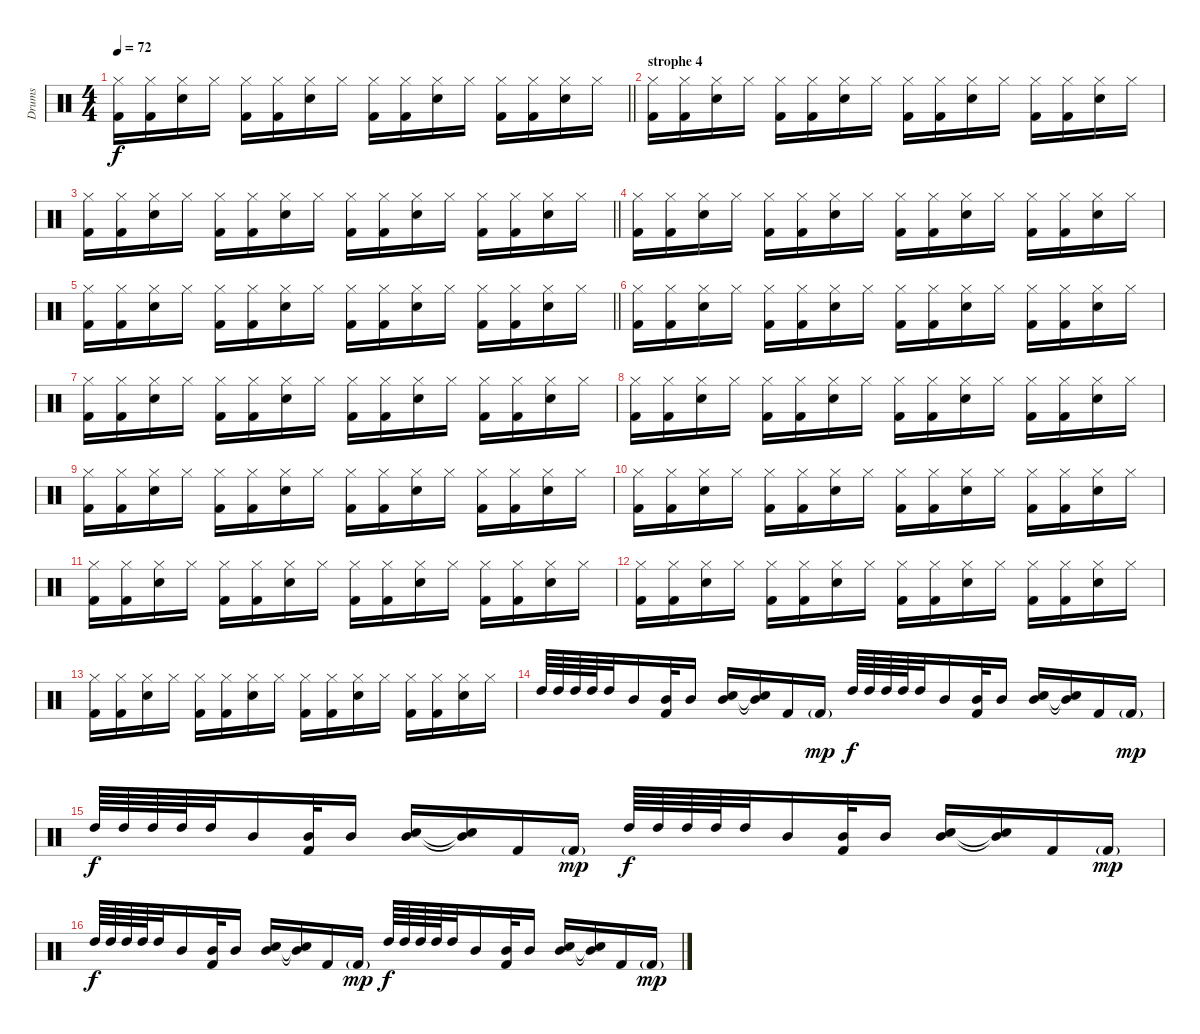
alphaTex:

\track ("Drums" "Drums") {instrument percussion}
\staff {score}
\articulation defaults
\ts (4 4)
\tempo 72
\clef neutral
\barLineRight lightlight
\ks c
("Hi-Hat (closed)" "Kick (hit) 2").16{dy f} ("Hi-Hat (closed)" "Kick (hit) 2").16 ("Hi-Hat (closed)" "Snare (hit) 2").16 "Hi-Hat (closed)".16 ("Hi-Hat (closed)" "Kick (hit) 2").16 ("Hi-Hat (closed)" "Kick (hit) 2").16 ("Hi-Hat (closed)" "Snare (hit) 2").16 "Hi-Hat (closed)".16 ("Hi-Hat (closed)" "Kick (hit) 2").16 ("Hi-Hat (closed)" "Kick (hit) 2").16 ("Hi-Hat (closed)" "Snare (hit) 2").16 "Hi-Hat (closed)".16 ("Hi-Hat (closed)" "Kick (hit) 2").16 ("Hi-Hat (closed)" "Kick (hit) 2").16 ("Hi-Hat (closed)" "Snare (hit) 2").16 "Hi-Hat (closed)".16 |
\section ("" "strophe 4")
("Hi-Hat (closed)" "Kick (hit) 2").16 ("Hi-Hat (closed)" "Kick (hit) 2").16 ("Hi-Hat (closed)" "Snare (hit) 2").16 "Hi-Hat (closed)".16 ("Hi-Hat (closed)" "Kick (hit) 2").16 ("Hi-Hat (closed)" "Kick (hit) 2").16 ("Hi-Hat (closed)" "Snare (hit) 2").16 "Hi-Hat (closed)".16 ("Hi-Hat (closed)" "Kick (hit) 2").16 ("Hi-Hat (closed)" "Kick (hit) 2").16 ("Hi-Hat (closed)" "Snare (hit) 2").16 "Hi-Hat (closed)".16 ("Hi-Hat (closed)" "Kick (hit) 2").16 ("Hi-Hat (closed)" "Kick (hit) 2").16 ("Hi-Hat (closed)" "Snare (hit) 2").16 "Hi-Hat (closed)".16 |
\barLineRight lightlight
("Hi-Hat (closed)" "Kick (hit) 2").16 ("Hi-Hat (closed)" "Kick (hit) 2").16 ("Hi-Hat (closed)" "Snare (hit) 2").16 "Hi-Hat (closed)".16 ("Hi-Hat (closed)" "Kick (hit) 2").16 ("Hi-Hat (closed)" "Kick (hit) 2").16 ("Hi-Hat (closed)" "Snare (hit) 2").16 "Hi-Hat (closed)".16 ("Hi-Hat (closed)" "Kick (hit) 2").16 ("Hi-Hat (closed)" "Kick (hit) 2").16 ("Hi-Hat (closed)" "Snare (hit) 2").16 "Hi-Hat (closed)".16 ("Hi-Hat (closed)" "Kick (hit) 2").16 ("Hi-Hat (closed)" "Kick (hit) 2").16 ("Hi-Hat (closed)" "Snare (hit) 2").16 "Hi-Hat (closed)".16 |
("Hi-Hat (closed)" "Kick (hit) 2").16 ("Hi-Hat (closed)" "Kick (hit) 2").16 ("Hi-Hat (closed)" "Snare (hit) 2").16 "Hi-Hat (closed)".16 ("Hi-Hat (closed)" "Kick (hit) 2").16 ("Hi-Hat (closed)" "Kick (hit) 2").16 ("Hi-Hat (closed)" "Snare (hit) 2").16 "Hi-Hat (closed)".16 ("Hi-Hat (closed)" "Kick (hit) 2").16 ("Hi-Hat (closed)" "Kick (hit) 2").16 ("Hi-Hat (closed)" "Snare (hit) 2").16 "Hi-Hat (closed)".16 ("Hi-Hat (closed)" "Kick (hit) 2").16 ("Hi-Hat (closed)" "Kick (hit) 2").16 ("Hi-Hat (closed)" "Snare (hit) 2").16 "Hi-Hat (closed)".16 |
\barLineRight lightlight
("Hi-Hat (closed)" "Kick (hit) 2").16 ("Hi-Hat (closed)" "Kick (hit) 2").16 ("Hi-Hat (closed)" "Snare (hit) 2").16 "Hi-Hat (closed)".16 ("Hi-Hat (closed)" "Kick (hit) 2").16 ("Hi-Hat (closed)" "Kick (hit) 2").16 ("Hi-Hat (closed)" "Snare (hit) 2").16 "Hi-Hat (closed)".16 ("Hi-Hat (closed)" "Kick (hit) 2").16 ("Hi-Hat (closed)" "Kick (hit) 2").16 ("Hi-Hat (closed)" "Snare (hit) 2").16 "Hi-Hat (closed)".16 ("Hi-Hat (closed)" "Kick (hit) 2").16 ("Hi-Hat (closed)" "Kick (hit) 2").16 ("Hi-Hat (closed)" "Snare (hit) 2").16 "Hi-Hat (closed)".16 |
("Hi-Hat (closed)" "Kick (hit) 2").16 ("Hi-Hat (closed)" "Kick (hit) 2").16 ("Hi-Hat (closed)" "Snare (hit) 2").16 "Hi-Hat (closed)".16 ("Hi-Hat (closed)" "Kick (hit) 2").16 ("Hi-Hat (closed)" "Kick (hit) 2").16 ("Hi-Hat (closed)" "Snare (hit) 2").16 "Hi-Hat (closed)".16 ("Hi-Hat (closed)" "Kick (hit) 2").16 ("Hi-Hat (closed)" "Kick (hit) 2").16 ("Hi-Hat (closed)" "Snare (hit) 2").16 "Hi-Hat (closed)".16 ("Hi-Hat (closed)" "Kick (hit) 2").16 ("Hi-Hat (closed)" "Kick (hit) 2").16 ("Hi-Hat (closed)" "Snare (hit) 2").16 "Hi-Hat (closed)".16 |
("Hi-Hat (closed)" "Kick (hit) 2").16 ("Hi-Hat (closed)" "Kick (hit) 2").16 ("Hi-Hat (closed)" "Snare (hit) 2").16 "Hi-Hat (closed)".16 ("Hi-Hat (closed)" "Kick (hit) 2").16 ("Hi-Hat (closed)" "Kick (hit) 2").16 ("Hi-Hat (closed)" "Snare (hit) 2").16 "Hi-Hat (closed)".16 ("Hi-Hat (closed)" "Kick (hit) 2").16 ("Hi-Hat (closed)" "Kick (hit) 2").16 ("Hi-Hat (closed)" "Snare (hit) 2").16 "Hi-Hat (closed)".16 ("Hi-Hat (closed)" "Kick (hit) 2").16 ("Hi-Hat (closed)" "Kick (hit) 2").16 ("Hi-Hat (closed)" "Snare (hit) 2").16 "Hi-Hat (closed)".16 |
("Hi-Hat (closed)" "Kick (hit) 2").16 ("Hi-Hat (closed)" "Kick (hit) 2").16 ("Hi-Hat (closed)" "Snare (hit) 2").16 "Hi-Hat (closed)".16 ("Hi-Hat (closed)" "Kick (hit) 2").16 ("Hi-Hat (closed)" "Kick (hit) 2").16 ("Hi-Hat (closed)" "Snare (hit) 2").16 "Hi-Hat (closed)".16 ("Hi-Hat (closed)" "Kick (hit) 2").16 ("Hi-Hat (closed)" "Kick (hit) 2").16 ("Hi-Hat (closed)" "Snare (hit) 2").16 "Hi-Hat (closed)".16 ("Hi-Hat (closed)" "Kick (hit) 2").16 ("Hi-Hat (closed)" "Kick (hit) 2").16 ("Hi-Hat (closed)" "Snare (hit) 2").16 "Hi-Hat (closed)".16 |
("Hi-Hat (closed)" "Kick (hit) 2").16 ("Hi-Hat (closed)" "Kick (hit) 2").16 ("Hi-Hat (closed)" "Snare (hit) 2").16 "Hi-Hat (closed)".16 ("Hi-Hat (closed)" "Kick (hit) 2").16 ("Hi-Hat (closed)" "Kick (hit) 2").16 ("Hi-Hat (closed)" "Snare (hit) 2").16 "Hi-Hat (closed)".16 ("Hi-Hat (closed)" "Kick (hit) 2").16 ("Hi-Hat (closed)" "Kick (hit) 2").16 ("Hi-Hat (closed)" "Snare (hit) 2").16 "Hi-Hat (closed)".16 ("Hi-Hat (closed)" "Kick (hit) 2").16 ("Hi-Hat (closed)" "Kick (hit) 2").16 ("Hi-Hat (closed)" "Snare (hit) 2").16 "Hi-Hat (closed)".16 |
("Hi-Hat (closed)" "Kick (hit) 2").16 ("Hi-Hat (closed)" "Kick (hit) 2").16 ("Hi-Hat (closed)" "Snare (hit) 2").16 "Hi-Hat (closed)".16 ("Hi-Hat (closed)" "Kick (hit) 2").16 ("Hi-Hat (closed)" "Kick (hit) 2").16 ("Hi-Hat (closed)" "Snare (hit) 2").16 "Hi-Hat (closed)".16 ("Hi-Hat (closed)" "Kick (hit) 2").16 ("Hi-Hat (closed)" "Kick (hit) 2").16 ("Hi-Hat (closed)" "Snare (hit) 2").16 "Hi-Hat (closed)".16 ("Hi-Hat (closed)" "Kick (hit) 2").16 ("Hi-Hat (closed)" "Kick (hit) 2").16 ("Hi-Hat (closed)" "Snare (hit) 2").16 "Hi-Hat (closed)".16 |
("Hi-Hat (closed)" "Kick (hit) 2").16 ("Hi-Hat (closed)" "Kick (hit) 2").16 ("Hi-Hat (closed)" "Snare (hit) 2").16 "Hi-Hat (closed)".16 ("Hi-Hat (closed)" "Kick (hit) 2").16 ("Hi-Hat (closed)" "Kick (hit) 2").16 ("Hi-Hat (closed)" "Snare (hit) 2").16 "Hi-Hat (closed)".16 ("Hi-Hat (closed)" "Kick (hit) 2").16 ("Hi-Hat (closed)" "Kick (hit) 2").16 ("Hi-Hat (closed)" "Snare (hit) 2").16 "Hi-Hat (closed)".16 ("Hi-Hat (closed)" "Kick (hit) 2").16 ("Hi-Hat (closed)" "Kick (hit) 2").16 ("Hi-Hat (closed)" "Snare (hit) 2").16 "Hi-Hat (closed)".16 |
("Hi-Hat (closed)" "Kick (hit) 2").16 ("Hi-Hat (closed)" "Kick (hit) 2").16 ("Hi-Hat (closed)" "Snare (hit) 2").16 "Hi-Hat (closed)".16 ("Hi-Hat (closed)" "Kick (hit) 2").16 ("Hi-Hat (closed)" "Kick (hit) 2").16 ("Hi-Hat (closed)" "Snare (hit) 2").16 "Hi-Hat (closed)".16 ("Hi-Hat (closed)" "Kick (hit) 2").16 ("Hi-Hat (closed)" "Kick (hit) 2").16 ("Hi-Hat (closed)" "Snare (hit) 2").16 "Hi-Hat (closed)".16 ("Hi-Hat (closed)" "Kick (hit) 2").16 ("Hi-Hat (closed)" "Kick (hit) 2").16 ("Hi-Hat (closed)" "Snare (hit) 2").16 "Hi-Hat (closed)".16 |
("Hi-Hat (closed)" "Kick (hit) 2").16 ("Hi-Hat (closed)" "Kick (hit) 2").16 ("Hi-Hat (closed)" "Snare (hit) 2").16 "Hi-Hat (closed)".16 ("Hi-Hat (closed)" "Kick (hit) 2").16 ("Hi-Hat (closed)" "Kick (hit) 2").16 ("Hi-Hat (closed)" "Snare (hit) 2").16 "Hi-Hat (closed)".16 ("Hi-Hat (closed)" "Kick (hit) 2").16 ("Hi-Hat (closed)" "Kick (hit) 2").16 ("Hi-Hat (closed)" "Snare (hit) 2").16 "Hi-Hat (closed)".16 ("Hi-Hat (closed)" "Kick (hit) 2").16 ("Hi-Hat (closed)" "Kick (hit) 2").16 ("Hi-Hat (closed)" "Snare (hit) 2").16 "Hi-Hat (closed)".16 |
"High Tom (hit)".64 "High Tom (hit)".64 "High Tom (hit)".64 "High Tom (hit)".64 "High Tom (hit)".32 "Mid Tom (hit)".16 ("Mid Tom (hit)" "Kick (hit) 2").32 "Mid Tom (hit)".16 ("Snare (hit) 2" "Mid Tom (hit)").16 ("Snare (hit) 2"{t} "Mid Tom (hit)"{t}).16 "Kick (hit) 2".16 "Kick (hit) 2"{g}.16{dy mp} "High Tom (hit)".64{dy f} "High Tom (hit)".64 "High Tom (hit)".64 "High Tom (hit)".64 "High Tom (hit)".32 "Mid Tom (hit)".16 ("Mid Tom (hit)" "Kick (hit) 2").32 "Mid Tom (hit)".16 ("Snare (hit) 2" "Mid Tom (hit)").16 ("Snare (hit) 2"{t} "Mid Tom (hit)"{t}).16 "Kick (hit) 2".16 "Kick (hit) 2"{g}.16{dy mp} |
"High Tom (hit)".64{dy f} "High Tom (hit)".64 "High Tom (hit)".64 "High Tom (hit)".64 "High Tom (hit)".32 "Mid Tom (hit)".16 ("Mid Tom (hit)" "Kick (hit) 2").32 "Mid Tom (hit)".16 ("Snare (hit) 2" "Mid Tom (hit)").16 ("Snare (hit) 2"{t} "Mid Tom (hit)"{t}).16 "Kick (hit) 2".16 "Kick (hit) 2"{g}.16{dy mp} "High Tom (hit)".64{dy f} "High Tom (hit)".64 "High Tom (hit)".64 "High Tom (hit)".64 "High Tom (hit)".32 "Mid Tom (hit)".16 ("Mid Tom (hit)" "Kick (hit) 2").32 "Mid Tom (hit)".16 ("Snare (hit) 2" "Mid Tom (hit)").16 ("Snare (hit) 2"{t} "Mid Tom (hit)"{t}).16 "Kick (hit) 2".16 "Kick (hit) 2"{g}.16{dy mp} |
"High Tom (hit)".64{dy f} "High Tom (hit)".64 "High Tom (hit)".64 "High Tom (hit)".64 "High Tom (hit)".32 "Mid Tom (hit)".16 ("Mid Tom (hit)" "Kick (hit) 2").32 "Mid Tom (hit)".16 ("Snare (hit) 2" "Mid Tom (hit)").16 ("Snare (hit) 2"{t} "Mid Tom (hit)"{t}).16 "Kick (hit) 2".16 "Kick (hit) 2"{g}.16{dy mp} "High Tom (hit)".64{dy f} "High Tom (hit)".64 "High Tom (hit)".64 "High Tom (hit)".64 "High Tom (hit)".32 "Mid Tom (hit)".16 ("Mid Tom (hit)" "Kick (hit) 2").32 "Mid Tom (hit)".16 ("Snare (hit) 2" "Mid Tom (hit)").16 ("Snare (hit) 2"{t} "Mid Tom (hit)"{t}).16 "Kick (hit) 2".16 "Kick (hit) 2"{g}.16{dy mp}
